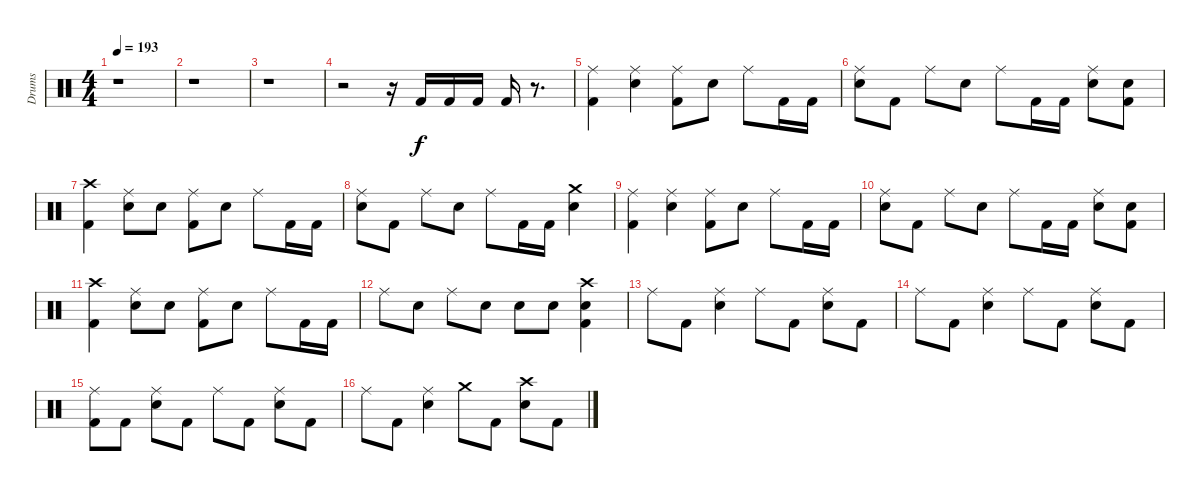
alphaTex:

\track ("Drums" "Drums") {instrument percussion}
\staff {score}
\articulation defaults
\ts (4 4)
\tempo 193
\clef neutral
\ks c
r.1{dy f} |
r.1 |
r.1 |
r.2 r.16 "Kick (hit) 2".16 "Kick (hit) 2".16 "Kick (hit) 2".16 "Kick (hit) 2".16 r.8{d} |
("Ride (middle)" "Kick (hit) 2").4 ("Ride (middle)" "Snare (hit) 2").4 ("Ride (middle)" "Kick (hit) 2").8 "Snare (hit) 2".8 "Ride (middle)".8 "Kick (hit) 2".16 "Kick (hit) 2".16 |
("Ride (middle)" "Snare (hit) 2").8 "Kick (hit) 2".8 "Ride (middle)".8 "Snare (hit) 2".8 "Ride (middle)".8 "Kick (hit) 2".16 "Kick (hit) 2".16 ("Ride (middle)" "Snare (hit) 2").8 ("Snare (hit) 2" "Kick (hit) 2").8 |
("Crash high (hit)" "Kick (hit) 2").4 ("Ride (middle)" "Snare (hit) 2").8 "Snare (hit) 2".8 ("Ride (middle)" "Kick (hit) 2").8 "Snare (hit) 2".8 "Ride (middle)".8 "Kick (hit) 2".16 "Kick (hit) 2".16 |
("Ride (middle)" "Snare (hit) 2").8 "Kick (hit) 2".8 "Ride (middle)".8 "Snare (hit) 2".8 "Ride (middle)".8 "Kick (hit) 2".16 "Kick (hit) 2".16 ("Crash medium (hit)" "Snare (hit) 2").4 |
("Ride (middle)" "Kick (hit) 2").4 ("Ride (middle)" "Snare (hit) 2").4 ("Ride (middle)" "Kick (hit) 2").8 "Snare (hit) 2".8 "Ride (middle)".8 "Kick (hit) 2".16 "Kick (hit) 2".16 |
("Ride (middle)" "Snare (hit) 2").8 "Kick (hit) 2".8 "Ride (middle)".8 "Snare (hit) 2".8 "Ride (middle)".8 "Kick (hit) 2".16 "Kick (hit) 2".16 ("Ride (middle)" "Snare (hit) 2").8 ("Snare (hit) 2" "Kick (hit) 2").8 |
("Crash high (hit)" "Kick (hit) 2").4 ("Ride (middle)" "Snare (hit) 2").8 "Snare (hit) 2".8 ("Ride (middle)" "Kick (hit) 2").8 "Snare (hit) 2".8 "Ride (middle)".8 "Kick (hit) 2".16 "Kick (hit) 2".16 |
"Ride (middle)".8 "Snare (hit) 2".8 "Ride (middle)".8 "Snare (hit) 2".8 "Snare (hit) 2".8 "Snare (hit) 2".8 ("Crash high (hit)" "Snare (hit) 2" "Kick (hit) 2").4 |
"Ride (middle)".8 "Kick (hit) 2".8 ("Ride (middle)" "Snare (hit) 2").4 "Ride (middle)".8 "Kick (hit) 2".8 ("Ride (middle)" "Snare (hit) 2").8 "Kick (hit) 2".8 |
"Ride (middle)".8 "Kick (hit) 2".8 ("Ride (middle)" "Snare (hit) 2").4 "Ride (middle)".8 "Kick (hit) 2".8 ("Ride (middle)" "Snare (hit) 2").8 "Kick (hit) 2".8 |
("Ride (middle)" "Kick (hit) 2").8 "Kick (hit) 2".8 ("Ride (middle)" "Snare (hit) 2").8 "Kick (hit) 2".8 "Ride (middle)".8 "Kick (hit) 2".8 ("Ride (middle)" "Snare (hit) 2").8 "Kick (hit) 2".8 |
"Ride (middle)".8 "Kick (hit) 2".8 ("Ride (middle)" "Snare (hit) 2").4 "Crash medium (hit)".8 "Kick (hit) 2".8 ("Crash high (hit)" "Snare (hit) 2").8 "Kick (hit) 2".8
